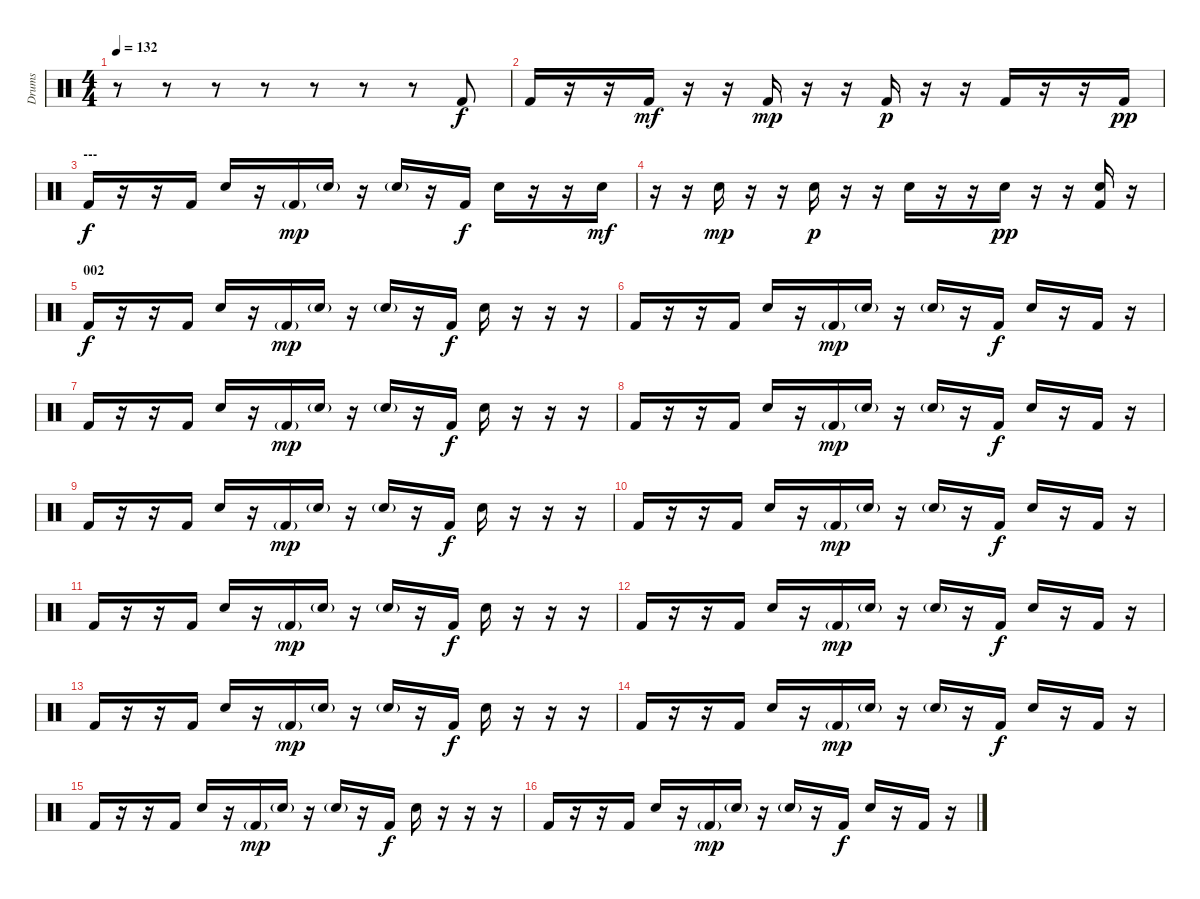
\track ("Drums" "Drums") {instrument percussion}
\staff {score}
\articulation defaults
\ts (4 4)
\tempo 132
\clef neutral
\ks c
r.8{dy f} r.8 r.8 r.8 r.8 r.8 r.8 "Kick (hit) 2".8 |
"Kick (hit) 2".16{balance 12} r.16 r.16 "Kick (hit) 2".16{dy mf balance 4} r.16 r.16 "Kick (hit) 2".16{dy mp balance 12} r.16 r.16 "Kick (hit) 2".16{dy p balance 4} r.16 r.16 "Kick (hit) 2".16{balance 12} r.16 r.16 "Kick (hit) 2".16{dy pp balance 4} |
\section ("" "---")
"Kick (hit) 2".16{dy f balance 8} r.16 r.16 "Kick (hit) 2".16 "Electric Snare (hit)".16 r.16 "Kick (hit) 2"{g}.16{dy mp} "Electric Snare (hit)"{g}.16 r.16 "Electric Snare (hit)"{g}.16 r.16 "Kick (hit) 2".16{dy f} "Electric Snare (hit)".16 r.16 r.16 "Electric Snare (hit)".16{dy mf balance 12} |
r.16 r.16 "Electric Snare (hit)".16{dy mp balance 4} r.16 r.16 "Electric Snare (hit)".16{dy p balance 12} r.16 r.16 "Electric Snare (hit)".16{balance 4} r.16 r.16 "Electric Snare (hit)".16{dy pp balance 12} r.16 r.16 ("Electric Snare (hit)" "Kick (hit) 2").16{balance 8} r.16 |
\section ("" "002")
"Kick (hit) 2".16{dy f} r.16 r.16 "Kick (hit) 2".16 "Electric Snare (hit)".16 r.16 "Kick (hit) 2"{g}.16{dy mp} "Electric Snare (hit)"{g}.16 r.16 "Electric Snare (hit)"{g}.16 r.16 "Kick (hit) 2".16{dy f} "Electric Snare (hit)".16 r.16 r.16 r.16 |
"Kick (hit) 2".16 r.16 r.16 "Kick (hit) 2".16 "Electric Snare (hit)".16 r.16 "Kick (hit) 2"{g}.16{dy mp} "Electric Snare (hit)"{g}.16 r.16 "Electric Snare (hit)"{g}.16 r.16 "Kick (hit) 2".16{dy f} "Electric Snare (hit)".16 r.16 "Kick (hit) 2".16 r.16 |
"Kick (hit) 2".16 r.16 r.16 "Kick (hit) 2".16 "Electric Snare (hit)".16 r.16 "Kick (hit) 2"{g}.16{dy mp} "Electric Snare (hit)"{g}.16 r.16 "Electric Snare (hit)"{g}.16 r.16 "Kick (hit) 2".16{dy f} "Electric Snare (hit)".16 r.16 r.16 r.16 |
"Kick (hit) 2".16 r.16 r.16 "Kick (hit) 2".16 "Electric Snare (hit)".16 r.16 "Kick (hit) 2"{g}.16{dy mp} "Electric Snare (hit)"{g}.16 r.16 "Electric Snare (hit)"{g}.16 r.16 "Kick (hit) 2".16{dy f} "Electric Snare (hit)".16 r.16 "Kick (hit) 2".16 r.16 |
"Kick (hit) 2".16 r.16 r.16 "Kick (hit) 2".16 "Electric Snare (hit)".16 r.16 "Kick (hit) 2"{g}.16{dy mp} "Electric Snare (hit)"{g}.16 r.16 "Electric Snare (hit)"{g}.16 r.16 "Kick (hit) 2".16{dy f} "Electric Snare (hit)".16 r.16 r.16 r.16 |
"Kick (hit) 2".16 r.16 r.16 "Kick (hit) 2".16 "Electric Snare (hit)".16 r.16 "Kick (hit) 2"{g}.16{dy mp} "Electric Snare (hit)"{g}.16 r.16 "Electric Snare (hit)"{g}.16 r.16 "Kick (hit) 2".16{dy f} "Electric Snare (hit)".16 r.16 "Kick (hit) 2".16 r.16 |
"Kick (hit) 2".16 r.16 r.16 "Kick (hit) 2".16 "Electric Snare (hit)".16 r.16 "Kick (hit) 2"{g}.16{dy mp} "Electric Snare (hit)"{g}.16 r.16 "Electric Snare (hit)"{g}.16 r.16 "Kick (hit) 2".16{dy f} "Electric Snare (hit)".16 r.16 r.16 r.16 |
"Kick (hit) 2".16 r.16 r.16 "Kick (hit) 2".16 "Electric Snare (hit)".16 r.16 "Kick (hit) 2"{g}.16{dy mp} "Electric Snare (hit)"{g}.16 r.16 "Electric Snare (hit)"{g}.16 r.16 "Kick (hit) 2".16{dy f} "Electric Snare (hit)".16 r.16 "Kick (hit) 2".16 r.16 |
"Kick (hit) 2".16 r.16 r.16 "Kick (hit) 2".16 "Electric Snare (hit)".16 r.16 "Kick (hit) 2"{g}.16{dy mp} "Electric Snare (hit)"{g}.16 r.16 "Electric Snare (hit)"{g}.16 r.16 "Kick (hit) 2".16{dy f} "Electric Snare (hit)".16 r.16 r.16 r.16 |
"Kick (hit) 2".16 r.16 r.16 "Kick (hit) 2".16 "Electric Snare (hit)".16 r.16 "Kick (hit) 2"{g}.16{dy mp} "Electric Snare (hit)"{g}.16 r.16 "Electric Snare (hit)"{g}.16 r.16 "Kick (hit) 2".16{dy f} "Electric Snare (hit)".16 r.16 "Kick (hit) 2".16 r.16 |
"Kick (hit) 2".16 r.16 r.16 "Kick (hit) 2".16 "Electric Snare (hit)".16 r.16 "Kick (hit) 2"{g}.16{dy mp} "Electric Snare (hit)"{g}.16 r.16 "Electric Snare (hit)"{g}.16 r.16 "Kick (hit) 2".16{dy f} "Electric Snare (hit)".16 r.16 r.16 r.16 |
"Kick (hit) 2".16 r.16 r.16 "Kick (hit) 2".16 "Electric Snare (hit)".16 r.16 "Kick (hit) 2"{g}.16{dy mp} "Electric Snare (hit)"{g}.16 r.16 "Electric Snare (hit)"{g}.16 r.16 "Kick (hit) 2".16{dy f} "Electric Snare (hit)".16 r.16 "Kick (hit) 2".16 r.16
